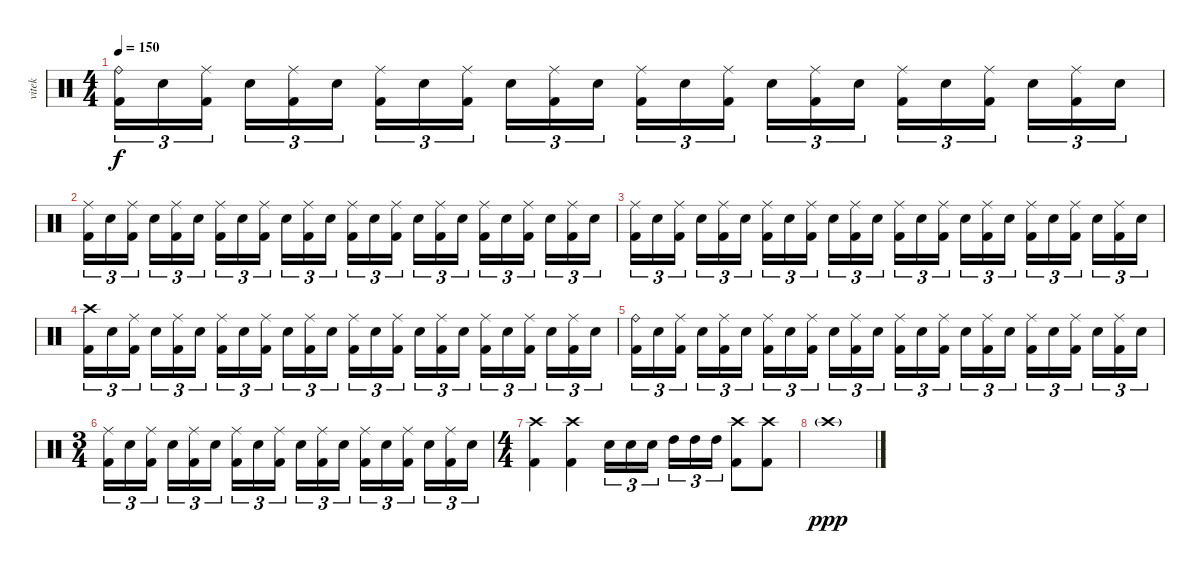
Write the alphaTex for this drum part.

\track ("vitek" "vitek") {instrument percussion}
\staff {score}
\articulation defaults
\ts (4 4)
\tempo 150
\clef neutral
\ks c
("Ride (bell)" "Kick (hit) 2").16{tu (3 2) dy f} "Electric Snare (hit)".16{tu (3 2)} ("Ride (middle)" "Kick (hit) 2").16{tu (3 2)} "Electric Snare (hit)".16{tu (3 2)} ("Ride (middle)" "Kick (hit) 2").16{tu (3 2)} "Electric Snare (hit)".16{tu (3 2)} ("Ride (middle)" "Kick (hit) 2").16{tu (3 2)} "Electric Snare (hit)".16{tu (3 2)} ("Ride (middle)" "Kick (hit) 2").16{tu (3 2)} "Electric Snare (hit)".16{tu (3 2)} ("Ride (middle)" "Kick (hit) 2").16{tu (3 2)} "Electric Snare (hit)".16{tu (3 2)} ("Ride (middle)" "Kick (hit) 2").16{tu (3 2)} "Electric Snare (hit)".16{tu (3 2)} ("Ride (middle)" "Kick (hit) 2").16{tu (3 2)} "Electric Snare (hit)".16{tu (3 2)} ("Ride (middle)" "Kick (hit) 2").16{tu (3 2)} "Electric Snare (hit)".16{tu (3 2)} ("Ride (middle)" "Kick (hit) 2").16{tu (3 2)} "Electric Snare (hit)".16{tu (3 2)} ("Ride (middle)" "Kick (hit) 2").16{tu (3 2)} "Electric Snare (hit)".16{tu (3 2)} ("Ride (middle)" "Kick (hit) 2").16{tu (3 2)} "Electric Snare (hit)".16{tu (3 2)} |
("Ride (middle)" "Kick (hit) 2").16{tu (3 2)} "Electric Snare (hit)".16{tu (3 2)} ("Ride (middle)" "Kick (hit) 2").16{tu (3 2)} "Electric Snare (hit)".16{tu (3 2)} ("Ride (middle)" "Kick (hit) 2").16{tu (3 2)} "Electric Snare (hit)".16{tu (3 2)} ("Ride (middle)" "Kick (hit) 2").16{tu (3 2)} "Electric Snare (hit)".16{tu (3 2)} ("Ride (middle)" "Kick (hit) 2").16{tu (3 2)} "Electric Snare (hit)".16{tu (3 2)} ("Ride (middle)" "Kick (hit) 2").16{tu (3 2)} "Electric Snare (hit)".16{tu (3 2)} ("Ride (middle)" "Kick (hit) 2").16{tu (3 2)} "Electric Snare (hit)".16{tu (3 2)} ("Ride (middle)" "Kick (hit) 2").16{tu (3 2)} "Electric Snare (hit)".16{tu (3 2)} ("Ride (middle)" "Kick (hit) 2").16{tu (3 2)} "Electric Snare (hit)".16{tu (3 2)} ("Ride (middle)" "Kick (hit) 2").16{tu (3 2)} "Electric Snare (hit)".16{tu (3 2)} ("Ride (middle)" "Kick (hit) 2").16{tu (3 2)} "Electric Snare (hit)".16{tu (3 2)} ("Ride (middle)" "Kick (hit) 2").16{tu (3 2)} "Electric Snare (hit)".16{tu (3 2)} |
("Ride (middle)" "Kick (hit) 2").16{tu (3 2)} "Electric Snare (hit)".16{tu (3 2)} ("Ride (middle)" "Kick (hit) 2").16{tu (3 2)} "Electric Snare (hit)".16{tu (3 2)} ("Ride (middle)" "Kick (hit) 2").16{tu (3 2)} "Electric Snare (hit)".16{tu (3 2)} ("Ride (middle)" "Kick (hit) 2").16{tu (3 2)} "Electric Snare (hit)".16{tu (3 2)} ("Ride (middle)" "Kick (hit) 2").16{tu (3 2)} "Electric Snare (hit)".16{tu (3 2)} ("Ride (middle)" "Kick (hit) 2").16{tu (3 2)} "Electric Snare (hit)".16{tu (3 2)} ("Ride (middle)" "Kick (hit) 2").16{tu (3 2)} "Electric Snare (hit)".16{tu (3 2)} ("Ride (middle)" "Kick (hit) 2").16{tu (3 2)} "Electric Snare (hit)".16{tu (3 2)} ("Ride (middle)" "Kick (hit) 2").16{tu (3 2)} "Electric Snare (hit)".16{tu (3 2)} ("Ride (middle)" "Kick (hit) 2").16{tu (3 2)} "Electric Snare (hit)".16{tu (3 2)} ("Ride (middle)" "Kick (hit) 2").16{tu (3 2)} "Electric Snare (hit)".16{tu (3 2)} ("Ride (middle)" "Kick (hit) 2").16{tu (3 2)} "Electric Snare (hit)".16{tu (3 2)} |
("Crash high (hit)" "Kick (hit) 2").16{tu (3 2)} "Electric Snare (hit)".16{tu (3 2)} ("Ride (middle)" "Kick (hit) 2").16{tu (3 2)} "Electric Snare (hit)".16{tu (3 2)} ("Ride (middle)" "Kick (hit) 2").16{tu (3 2)} "Electric Snare (hit)".16{tu (3 2)} ("Ride (middle)" "Kick (hit) 2").16{tu (3 2)} "Electric Snare (hit)".16{tu (3 2)} ("Ride (middle)" "Kick (hit) 2").16{tu (3 2)} "Electric Snare (hit)".16{tu (3 2)} ("Ride (middle)" "Kick (hit) 2").16{tu (3 2)} "Electric Snare (hit)".16{tu (3 2)} ("Ride (middle)" "Kick (hit) 2").16{tu (3 2)} "Electric Snare (hit)".16{tu (3 2)} ("Ride (middle)" "Kick (hit) 2").16{tu (3 2)} "Electric Snare (hit)".16{tu (3 2)} ("Ride (middle)" "Kick (hit) 2").16{tu (3 2)} "Electric Snare (hit)".16{tu (3 2)} ("Ride (middle)" "Kick (hit) 2").16{tu (3 2)} "Electric Snare (hit)".16{tu (3 2)} ("Ride (middle)" "Kick (hit) 2").16{tu (3 2)} "Electric Snare (hit)".16{tu (3 2)} ("Ride (middle)" "Kick (hit) 2").16{tu (3 2)} "Electric Snare (hit)".16{tu (3 2)} |
("Ride (bell)" "Kick (hit) 2").16{tu (3 2)} "Electric Snare (hit)".16{tu (3 2)} ("Ride (middle)" "Kick (hit) 2").16{tu (3 2)} "Electric Snare (hit)".16{tu (3 2)} ("Ride (middle)" "Kick (hit) 2").16{tu (3 2)} "Electric Snare (hit)".16{tu (3 2)} ("Ride (middle)" "Kick (hit) 2").16{tu (3 2)} "Electric Snare (hit)".16{tu (3 2)} ("Ride (middle)" "Kick (hit) 2").16{tu (3 2)} "Electric Snare (hit)".16{tu (3 2)} ("Ride (middle)" "Kick (hit) 2").16{tu (3 2)} "Electric Snare (hit)".16{tu (3 2)} ("Ride (middle)" "Kick (hit) 2").16{tu (3 2)} "Electric Snare (hit)".16{tu (3 2)} ("Ride (middle)" "Kick (hit) 2").16{tu (3 2)} "Electric Snare (hit)".16{tu (3 2)} ("Ride (middle)" "Kick (hit) 2").16{tu (3 2)} "Electric Snare (hit)".16{tu (3 2)} ("Ride (middle)" "Kick (hit) 2").16{tu (3 2)} "Electric Snare (hit)".16{tu (3 2)} ("Ride (middle)" "Kick (hit) 2").16{tu (3 2)} "Electric Snare (hit)".16{tu (3 2)} ("Ride (middle)" "Kick (hit) 2").16{tu (3 2)} "Electric Snare (hit)".16{tu (3 2)} |
\ts (3 4)
("Ride (middle)" "Kick (hit) 2").16{tu (3 2)} "Electric Snare (hit)".16{tu (3 2)} ("Ride (middle)" "Kick (hit) 2").16{tu (3 2)} "Electric Snare (hit)".16{tu (3 2)} ("Ride (middle)" "Kick (hit) 2").16{tu (3 2)} "Electric Snare (hit)".16{tu (3 2)} ("Ride (middle)" "Kick (hit) 2").16{tu (3 2)} "Electric Snare (hit)".16{tu (3 2)} ("Ride (middle)" "Kick (hit) 2").16{tu (3 2)} "Electric Snare (hit)".16{tu (3 2)} ("Ride (middle)" "Kick (hit) 2").16{tu (3 2)} "Electric Snare (hit)".16{tu (3 2)} ("Ride (middle)" "Kick (hit) 2").16{tu (3 2)} "Electric Snare (hit)".16{tu (3 2)} ("Ride (middle)" "Kick (hit) 2").16{tu (3 2)} "Electric Snare (hit)".16{tu (3 2)} ("Ride (middle)" "Kick (hit) 2").16{tu (3 2)} "Electric Snare (hit)".16{tu (3 2)} |
\ts (4 4)
("Crash high (hit)" "Kick (hit) 2").4 ("Crash high (hit)" "Kick (hit) 2").4 "Electric Snare (hit)".16{tu (3 2)} "Electric Snare (hit)".16{tu (3 2)} "Electric Snare (hit)".16{tu (3 2)} "High Tom (hit)".16{tu (3 2)} "High Tom (hit)".16{tu (3 2)} "High Tom (hit)".16{tu (3 2)} ("Crash high (hit)" "Kick (hit) 2").8 ("Crash high (hit)"{pm} "Kick (hit) 2").8 |
"Crash high (hit)"{g}.1{dy ppp}
